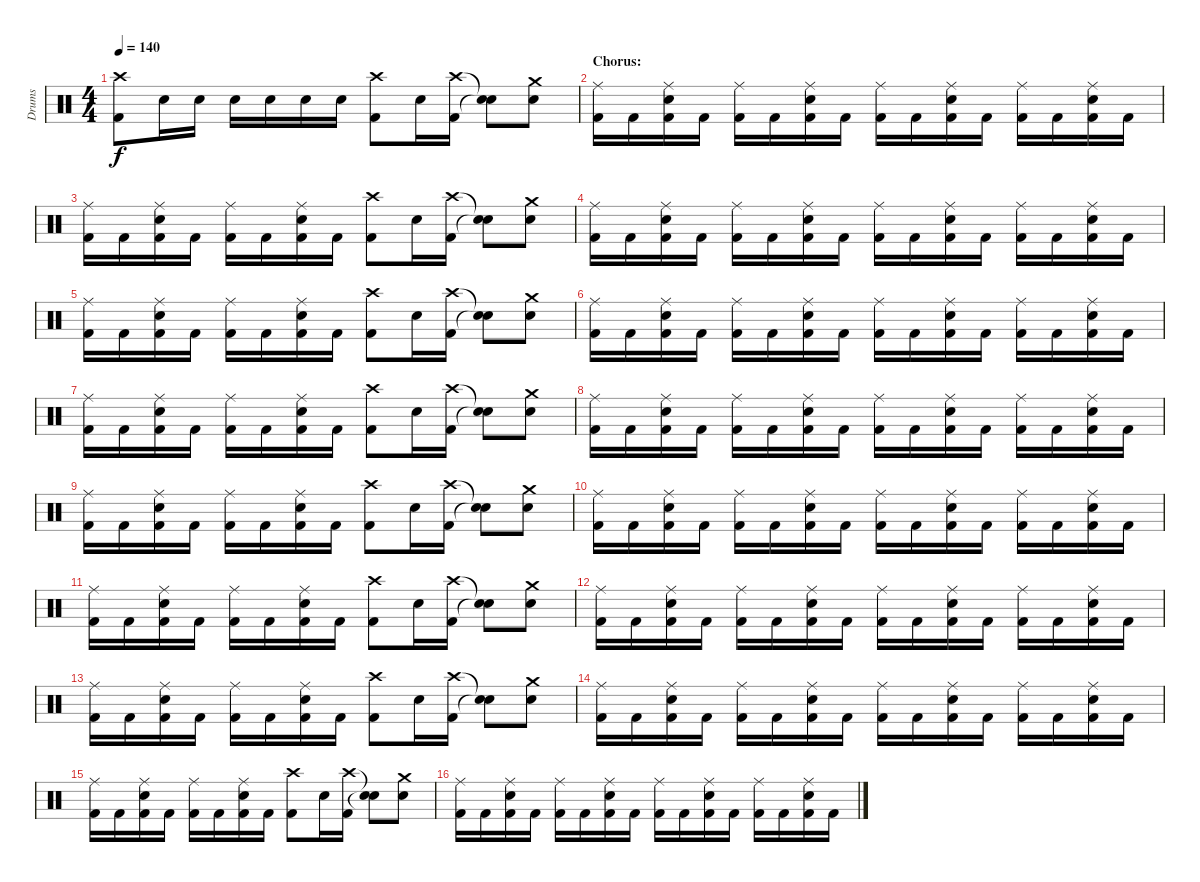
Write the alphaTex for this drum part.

\track ("Drums" "Drums") {instrument percussion}
\staff {score}
\articulation defaults
\ts (4 4)
\tempo 140
\clef neutral
\ks c
("Crash high (hit)" "Kick (hit) 2").8{dy f} "Snare (hit) 2".16 "Snare (hit) 2".16 "Snare (hit) 2".16 "Snare (hit) 2".16 "Snare (hit) 2".16 "Snare (hit) 2".16 ("Crash high (hit)" "Kick (hit) 2").8 "Snare (hit) 2".16 ("Crash high (hit)" "Kick (hit) 2").16 ("Snare (hit)"{t} "Snare (hit)"{t}).8 ("Crash medium (hit)" "Snare (hit) 2").8 |
\section ("" "Chorus:")
("Ride (middle)" "Kick (hit) 2").16 "Kick (hit) 2".16 ("Ride (middle)" "Snare (hit) 2" "Kick (hit) 2").16 "Kick (hit) 2".16 ("Ride (middle)" "Kick (hit) 2").16 "Kick (hit) 2".16 ("Ride (middle)" "Snare (hit) 2" "Kick (hit) 2").16 "Kick (hit) 2".16 ("Ride (middle)" "Kick (hit) 2").16 "Kick (hit) 2".16 ("Ride (middle)" "Snare (hit) 2" "Kick (hit) 2").16 "Kick (hit) 2".16 ("Ride (middle)" "Kick (hit) 2").16 "Kick (hit) 2".16 ("Ride (middle)" "Snare (hit) 2" "Kick (hit) 2").16 "Kick (hit) 2".16 |
("Ride (middle)" "Kick (hit) 2").16 "Kick (hit) 2".16 ("Ride (middle)" "Snare (hit) 2" "Kick (hit) 2").16 "Kick (hit) 2".16 ("Ride (middle)" "Kick (hit) 2").16 "Kick (hit) 2".16 ("Ride (middle)" "Snare (hit) 2" "Kick (hit) 2").16 "Kick (hit) 2".16 ("Crash high (hit)" "Kick (hit) 2").8 "Snare (hit) 2".16 ("Crash high (hit)" "Kick (hit) 2").16 ("Snare (hit)"{t} "Snare (hit)"{t}).8 ("Crash medium (hit)" "Snare (hit) 2").8 |
("Ride (middle)" "Kick (hit) 2").16 "Kick (hit) 2".16 ("Ride (middle)" "Snare (hit) 2" "Kick (hit) 2").16 "Kick (hit) 2".16 ("Ride (middle)" "Kick (hit) 2").16 "Kick (hit) 2".16 ("Ride (middle)" "Snare (hit) 2" "Kick (hit) 2").16 "Kick (hit) 2".16 ("Ride (middle)" "Kick (hit) 2").16 "Kick (hit) 2".16 ("Ride (middle)" "Snare (hit) 2" "Kick (hit) 2").16 "Kick (hit) 2".16 ("Ride (middle)" "Kick (hit) 2").16 "Kick (hit) 2".16 ("Ride (middle)" "Snare (hit) 2" "Kick (hit) 2").16 "Kick (hit) 2".16 |
("Ride (middle)" "Kick (hit) 2").16 "Kick (hit) 2".16 ("Ride (middle)" "Snare (hit) 2" "Kick (hit) 2").16 "Kick (hit) 2".16 ("Ride (middle)" "Kick (hit) 2").16 "Kick (hit) 2".16 ("Ride (middle)" "Snare (hit) 2" "Kick (hit) 2").16 "Kick (hit) 2".16 ("Crash high (hit)" "Kick (hit) 2").8 "Snare (hit) 2".16 ("Crash high (hit)" "Kick (hit) 2").16 ("Snare (hit)"{t} "Snare (hit)"{t}).8 ("Crash medium (hit)" "Snare (hit) 2").8 |
("Ride (middle)" "Kick (hit) 2").16 "Kick (hit) 2".16 ("Ride (middle)" "Snare (hit) 2" "Kick (hit) 2").16 "Kick (hit) 2".16 ("Ride (middle)" "Kick (hit) 2").16 "Kick (hit) 2".16 ("Ride (middle)" "Snare (hit) 2" "Kick (hit) 2").16 "Kick (hit) 2".16 ("Ride (middle)" "Kick (hit) 2").16 "Kick (hit) 2".16 ("Ride (middle)" "Snare (hit) 2" "Kick (hit) 2").16 "Kick (hit) 2".16 ("Ride (middle)" "Kick (hit) 2").16 "Kick (hit) 2".16 ("Ride (middle)" "Snare (hit) 2" "Kick (hit) 2").16 "Kick (hit) 2".16 |
("Ride (middle)" "Kick (hit) 2").16 "Kick (hit) 2".16 ("Ride (middle)" "Snare (hit) 2" "Kick (hit) 2").16 "Kick (hit) 2".16 ("Ride (middle)" "Kick (hit) 2").16 "Kick (hit) 2".16 ("Ride (middle)" "Snare (hit) 2" "Kick (hit) 2").16 "Kick (hit) 2".16 ("Crash high (hit)" "Kick (hit) 2").8 "Snare (hit) 2".16 ("Crash high (hit)" "Kick (hit) 2").16 ("Snare (hit)"{t} "Snare (hit)"{t}).8 ("Crash medium (hit)" "Snare (hit) 2").8 |
("Ride (middle)" "Kick (hit) 2").16 "Kick (hit) 2".16 ("Ride (middle)" "Snare (hit) 2" "Kick (hit) 2").16 "Kick (hit) 2".16 ("Ride (middle)" "Kick (hit) 2").16 "Kick (hit) 2".16 ("Ride (middle)" "Snare (hit) 2" "Kick (hit) 2").16 "Kick (hit) 2".16 ("Ride (middle)" "Kick (hit) 2").16 "Kick (hit) 2".16 ("Ride (middle)" "Snare (hit) 2" "Kick (hit) 2").16 "Kick (hit) 2".16 ("Ride (middle)" "Kick (hit) 2").16 "Kick (hit) 2".16 ("Ride (middle)" "Snare (hit) 2" "Kick (hit) 2").16 "Kick (hit) 2".16 |
("Ride (middle)" "Kick (hit) 2").16 "Kick (hit) 2".16 ("Ride (middle)" "Snare (hit) 2" "Kick (hit) 2").16 "Kick (hit) 2".16 ("Ride (middle)" "Kick (hit) 2").16 "Kick (hit) 2".16 ("Ride (middle)" "Snare (hit) 2" "Kick (hit) 2").16 "Kick (hit) 2".16 ("Crash high (hit)" "Kick (hit) 2").8 "Snare (hit) 2".16 ("Crash high (hit)" "Kick (hit) 2").16 ("Snare (hit)"{t} "Snare (hit)"{t}).8 ("Crash medium (hit)" "Snare (hit) 2").8 |
("Ride (middle)" "Kick (hit) 2").16 "Kick (hit) 2".16 ("Ride (middle)" "Snare (hit) 2" "Kick (hit) 2").16 "Kick (hit) 2".16 ("Ride (middle)" "Kick (hit) 2").16 "Kick (hit) 2".16 ("Ride (middle)" "Snare (hit) 2" "Kick (hit) 2").16 "Kick (hit) 2".16 ("Ride (middle)" "Kick (hit) 2").16 "Kick (hit) 2".16 ("Ride (middle)" "Snare (hit) 2" "Kick (hit) 2").16 "Kick (hit) 2".16 ("Ride (middle)" "Kick (hit) 2").16 "Kick (hit) 2".16 ("Ride (middle)" "Snare (hit) 2" "Kick (hit) 2").16 "Kick (hit) 2".16 |
("Ride (middle)" "Kick (hit) 2").16 "Kick (hit) 2".16 ("Ride (middle)" "Snare (hit) 2" "Kick (hit) 2").16 "Kick (hit) 2".16 ("Ride (middle)" "Kick (hit) 2").16 "Kick (hit) 2".16 ("Ride (middle)" "Snare (hit) 2" "Kick (hit) 2").16 "Kick (hit) 2".16 ("Crash high (hit)" "Kick (hit) 2").8 "Snare (hit) 2".16 ("Crash high (hit)" "Kick (hit) 2").16 ("Snare (hit)"{t} "Snare (hit)"{t}).8 ("Crash medium (hit)" "Snare (hit) 2").8 |
("Ride (middle)" "Kick (hit) 2").16 "Kick (hit) 2".16 ("Ride (middle)" "Snare (hit) 2" "Kick (hit) 2").16 "Kick (hit) 2".16 ("Ride (middle)" "Kick (hit) 2").16 "Kick (hit) 2".16 ("Ride (middle)" "Snare (hit) 2" "Kick (hit) 2").16 "Kick (hit) 2".16 ("Ride (middle)" "Kick (hit) 2").16 "Kick (hit) 2".16 ("Ride (middle)" "Snare (hit) 2" "Kick (hit) 2").16 "Kick (hit) 2".16 ("Ride (middle)" "Kick (hit) 2").16 "Kick (hit) 2".16 ("Ride (middle)" "Snare (hit) 2" "Kick (hit) 2").16 "Kick (hit) 2".16 |
("Ride (middle)" "Kick (hit) 2").16 "Kick (hit) 2".16 ("Ride (middle)" "Snare (hit) 2" "Kick (hit) 2").16 "Kick (hit) 2".16 ("Ride (middle)" "Kick (hit) 2").16 "Kick (hit) 2".16 ("Ride (middle)" "Snare (hit) 2" "Kick (hit) 2").16 "Kick (hit) 2".16 ("Crash high (hit)" "Kick (hit) 2").8 "Snare (hit) 2".16 ("Crash high (hit)" "Kick (hit) 2").16 ("Snare (hit)"{t} "Snare (hit)"{t}).8 ("Crash medium (hit)" "Snare (hit) 2").8 |
("Ride (middle)" "Kick (hit) 2").16 "Kick (hit) 2".16 ("Ride (middle)" "Snare (hit) 2" "Kick (hit) 2").16 "Kick (hit) 2".16 ("Ride (middle)" "Kick (hit) 2").16 "Kick (hit) 2".16 ("Ride (middle)" "Snare (hit) 2" "Kick (hit) 2").16 "Kick (hit) 2".16 ("Ride (middle)" "Kick (hit) 2").16 "Kick (hit) 2".16 ("Ride (middle)" "Snare (hit) 2" "Kick (hit) 2").16 "Kick (hit) 2".16 ("Ride (middle)" "Kick (hit) 2").16 "Kick (hit) 2".16 ("Ride (middle)" "Snare (hit) 2" "Kick (hit) 2").16 "Kick (hit) 2".16 |
("Ride (middle)" "Kick (hit) 2").16 "Kick (hit) 2".16 ("Ride (middle)" "Snare (hit) 2" "Kick (hit) 2").16 "Kick (hit) 2".16 ("Ride (middle)" "Kick (hit) 2").16 "Kick (hit) 2".16 ("Ride (middle)" "Snare (hit) 2" "Kick (hit) 2").16 "Kick (hit) 2".16 ("Crash high (hit)" "Kick (hit) 2").8 "Snare (hit) 2".16 ("Crash high (hit)" "Kick (hit) 2").16 ("Snare (hit)"{t} "Snare (hit)"{t}).8 ("Crash medium (hit)" "Snare (hit) 2").8 |
("Ride (middle)" "Kick (hit) 2").16 "Kick (hit) 2".16 ("Ride (middle)" "Snare (hit) 2" "Kick (hit) 2").16 "Kick (hit) 2".16 ("Ride (middle)" "Kick (hit) 2").16 "Kick (hit) 2".16 ("Ride (middle)" "Snare (hit) 2" "Kick (hit) 2").16 "Kick (hit) 2".16 ("Ride (middle)" "Kick (hit) 2").16 "Kick (hit) 2".16 ("Ride (middle)" "Snare (hit) 2" "Kick (hit) 2").16 "Kick (hit) 2".16 ("Ride (middle)" "Kick (hit) 2").16 "Kick (hit) 2".16 ("Ride (middle)" "Snare (hit) 2" "Kick (hit) 2").16 "Kick (hit) 2".16
